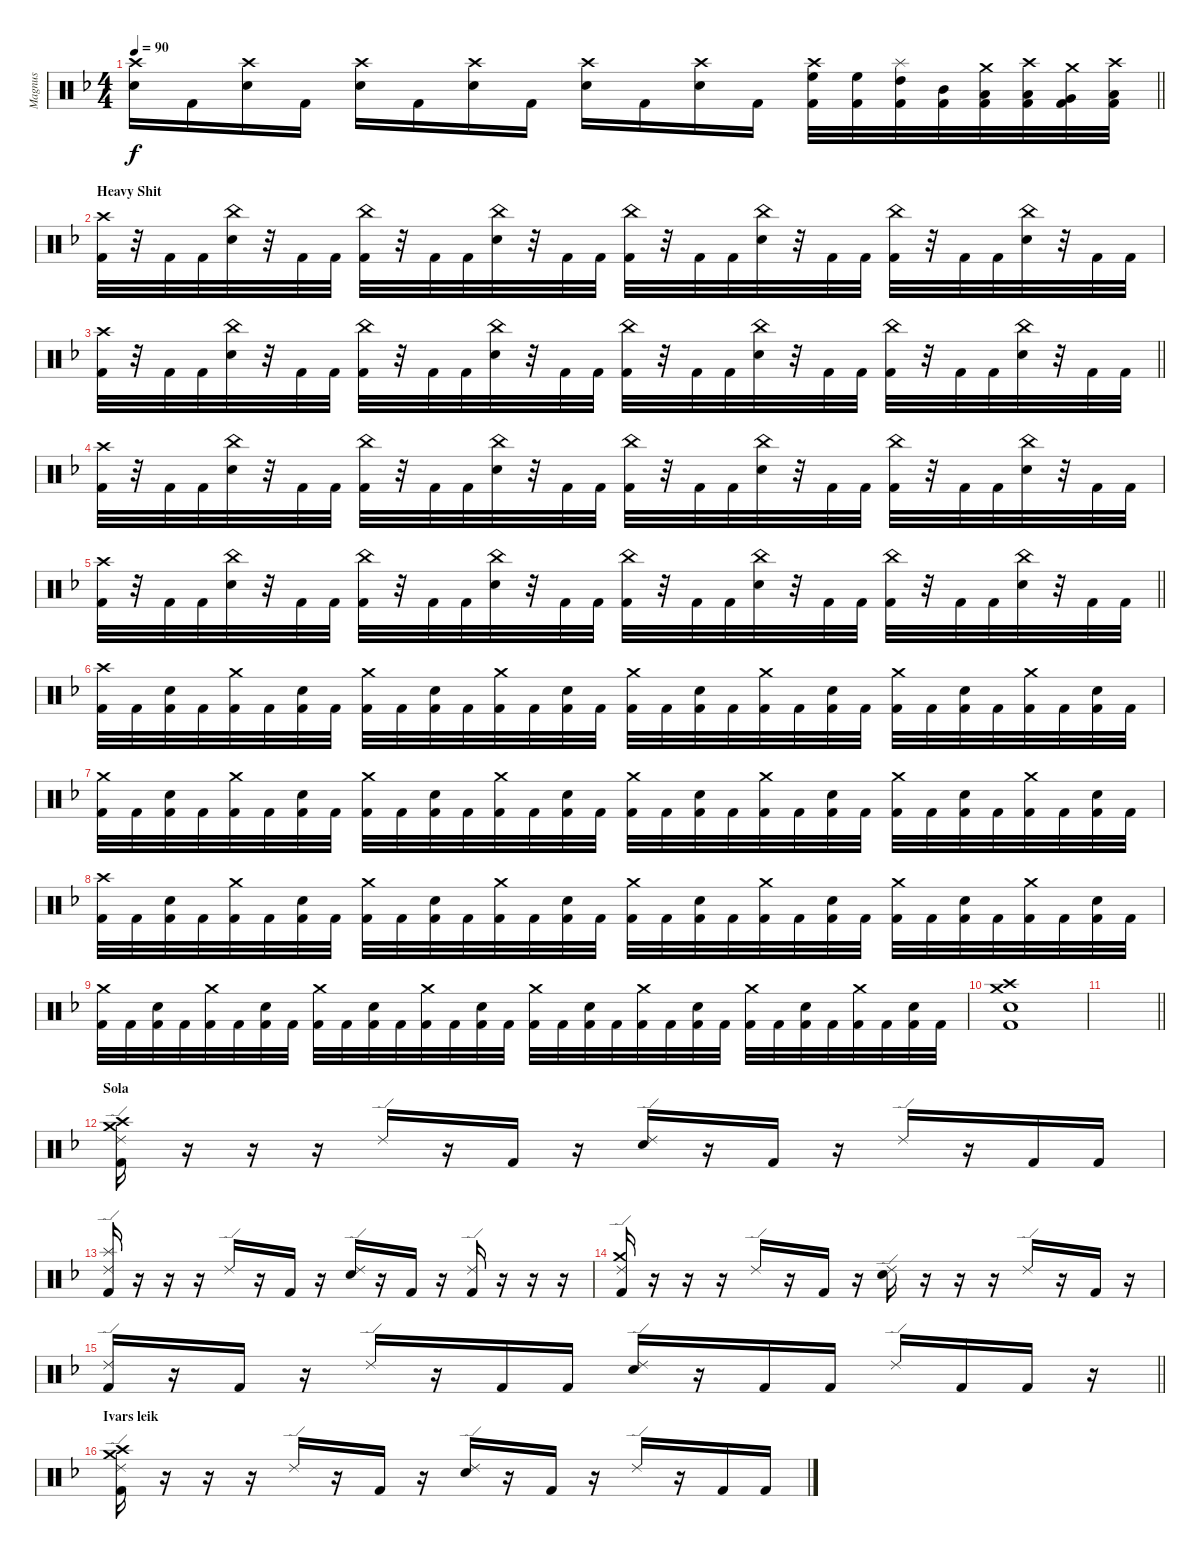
\track ("Magnus" "Magnus") {instrument percussion}
\staff {score}
\articulation defaults
\ts (4 4)
\tempo 90
\clef neutral
\barLineRight lightlight
\ks dminor
("Crash high (hit)" "Snare (hit) 2").16{dy f} "Kick (hit) 2".16 ("Crash high (hit)" "Snare (hit) 2").16 "Kick (hit) 2".16 ("Crash high (hit)" "Snare (hit) 2").16 "Kick (hit) 2".16 ("Crash high (hit)" "Snare (hit) 2").16 "Kick (hit) 2".16 ("Crash high (hit)" "Snare (hit) 2").16 "Kick (hit) 2".16 ("Crash high (hit)" "Snare (hit) 2").16 "Kick (hit) 2".16 ("High Floor Tom (hit)" "Crash high (hit)" "Kick (hit) 2").32 ("High Floor Tom (hit)" "Kick (hit) 2").32 ("High Tom (hit)" "Splash (hit)" "Kick (hit) 2").32 ("Mid Tom (hit)" "Kick (hit) 2").32 ("Low Tom (hit)" "Crash medium (hit)" "Kick (hit) 2").32 ("Low Tom (hit)" "Crash high (hit)" "Kick (hit) 2").32 ("Very Low Tom (hit)" "Crash medium (hit)" "Kick (hit) 2").32 ("Low Floor Tom (hit)" "Crash high (hit)" "Kick (hit) 2").32 |
\section ("" "Heavy Shit")
("Crash high (hit)" "Kick (hit) 2").32 r.32 "Kick (hit) 2".32 "Kick (hit) 2".32 ("China (hit)" "Snare (hit) 2").32 r.32 "Kick (hit) 2".32 "Kick (hit) 2".32 ("China (hit)" "Kick (hit) 2").32 r.32 "Kick (hit) 2".32 "Kick (hit) 2".32 ("China (hit)" "Snare (hit) 2").32 r.32 "Kick (hit) 2".32 "Kick (hit) 2".32 ("China (hit)" "Kick (hit) 2").32 r.32 "Kick (hit) 2".32 "Kick (hit) 2".32 ("China (hit)" "Snare (hit) 2").32 r.32 "Kick (hit) 2".32 "Kick (hit) 2".32 ("China (hit)" "Kick (hit) 2").32 r.32 "Kick (hit) 2".32 "Kick (hit) 2".32 ("China (hit)" "Snare (hit) 2").32 r.32 "Kick (hit) 2".32 "Kick (hit) 2".32 |
\barLineRight lightlight
("Crash high (hit)" "Kick (hit) 2").32 r.32 "Kick (hit) 2".32 "Kick (hit) 2".32 ("China (hit)" "Snare (hit) 2").32 r.32 "Kick (hit) 2".32 "Kick (hit) 2".32 ("China (hit)" "Kick (hit) 2").32 r.32 "Kick (hit) 2".32 "Kick (hit) 2".32 ("China (hit)" "Snare (hit) 2").32 r.32 "Kick (hit) 2".32 "Kick (hit) 2".32 ("China (hit)" "Kick (hit) 2").32 r.32 "Kick (hit) 2".32 "Kick (hit) 2".32 ("China (hit)" "Snare (hit) 2").32 r.32 "Kick (hit) 2".32 "Kick (hit) 2".32 ("China (hit)" "Kick (hit) 2").32 r.32 "Kick (hit) 2".32 "Kick (hit) 2".32 ("China (hit)" "Snare (hit) 2").32 r.32 "Kick (hit) 2".32 "Kick (hit) 2".32 |
("Crash high (hit)" "Kick (hit) 2").32 r.32 "Kick (hit) 2".32 "Kick (hit) 2".32 ("China (hit)" "Snare (hit) 2").32 r.32 "Kick (hit) 2".32 "Kick (hit) 2".32 ("China (hit)" "Kick (hit) 2").32 r.32 "Kick (hit) 2".32 "Kick (hit) 2".32 ("China (hit)" "Snare (hit) 2").32 r.32 "Kick (hit) 2".32 "Kick (hit) 2".32 ("China (hit)" "Kick (hit) 2").32 r.32 "Kick (hit) 2".32 "Kick (hit) 2".32 ("China (hit)" "Snare (hit) 2").32 r.32 "Kick (hit) 2".32 "Kick (hit) 2".32 ("China (hit)" "Kick (hit) 2").32 r.32 "Kick (hit) 2".32 "Kick (hit) 2".32 ("China (hit)" "Snare (hit) 2").32 r.32 "Kick (hit) 2".32 "Kick (hit) 2".32 |
\barLineRight lightlight
("Crash high (hit)" "Kick (hit) 2").32 r.32 "Kick (hit) 2".32 "Kick (hit) 2".32 ("China (hit)" "Snare (hit) 2").32 r.32 "Kick (hit) 2".32 "Kick (hit) 2".32 ("China (hit)" "Kick (hit) 2").32 r.32 "Kick (hit) 2".32 "Kick (hit) 2".32 ("China (hit)" "Snare (hit) 2").32 r.32 "Kick (hit) 2".32 "Kick (hit) 2".32 ("China (hit)" "Kick (hit) 2").32 r.32 "Kick (hit) 2".32 "Kick (hit) 2".32 ("China (hit)" "Snare (hit) 2").32 r.32 "Kick (hit) 2".32 "Kick (hit) 2".32 ("China (hit)" "Kick (hit) 2").32 r.32 "Kick (hit) 2".32 "Kick (hit) 2".32 ("China (hit)" "Snare (hit) 2").32 r.32 "Kick (hit) 2".32 "Kick (hit) 2".32 |
("Crash high (hit)" "Kick (hit) 2").32 "Kick (hit) 2".32 ("Snare (hit) 2" "Kick (hit) 2").32 "Kick (hit) 2".32 ("Crash medium (hit)" "Kick (hit) 2").32 "Kick (hit) 2".32 ("Snare (hit) 2" "Kick (hit) 2").32 "Kick (hit) 2".32 ("Crash medium (hit)" "Kick (hit) 2").32 "Kick (hit) 2".32 ("Snare (hit) 2" "Kick (hit) 2").32 "Kick (hit) 2".32 ("Crash medium (hit)" "Kick (hit) 2").32 "Kick (hit) 2".32 ("Snare (hit) 2" "Kick (hit) 2").32 "Kick (hit) 2".32 ("Crash medium (hit)" "Kick (hit) 2").32 "Kick (hit) 2".32 ("Snare (hit) 2" "Kick (hit) 2").32 "Kick (hit) 2".32 ("Crash medium (hit)" "Kick (hit) 2").32 "Kick (hit) 2".32 ("Snare (hit) 2" "Kick (hit) 2").32 "Kick (hit) 2".32 ("Crash medium (hit)" "Kick (hit) 2").32 "Kick (hit) 2".32 ("Snare (hit) 2" "Kick (hit) 2").32 "Kick (hit) 2".32 ("Crash medium (hit)" "Kick (hit) 2").32 "Kick (hit) 2".32 ("Snare (hit) 2" "Kick (hit) 2").32 "Kick (hit) 2".32 |
("Crash medium (hit)" "Kick (hit) 2").32 "Kick (hit) 2".32 ("Snare (hit) 2" "Kick (hit) 2").32 "Kick (hit) 2".32 ("Crash medium (hit)" "Kick (hit) 2").32 "Kick (hit) 2".32 ("Snare (hit) 2" "Kick (hit) 2").32 "Kick (hit) 2".32 ("Crash medium (hit)" "Kick (hit) 2").32 "Kick (hit) 2".32 ("Snare (hit) 2" "Kick (hit) 2").32 "Kick (hit) 2".32 ("Crash medium (hit)" "Kick (hit) 2").32 "Kick (hit) 2".32 ("Snare (hit) 2" "Kick (hit) 2").32 "Kick (hit) 2".32 ("Crash medium (hit)" "Kick (hit) 2").32 "Kick (hit) 2".32 ("Snare (hit) 2" "Kick (hit) 2").32 "Kick (hit) 2".32 ("Crash medium (hit)" "Kick (hit) 2").32 "Kick (hit) 2".32 ("Snare (hit) 2" "Kick (hit) 2").32 "Kick (hit) 2".32 ("Crash medium (hit)" "Kick (hit) 2").32 "Kick (hit) 2".32 ("Snare (hit) 2" "Kick (hit) 2").32 "Kick (hit) 2".32 ("Crash medium (hit)" "Kick (hit) 2").32 "Kick (hit) 2".32 ("Snare (hit) 2" "Kick (hit) 2").32 "Kick (hit) 2".32 |
("Crash high (hit)" "Kick (hit) 2").32 "Kick (hit) 2".32 ("Snare (hit) 2" "Kick (hit) 2").32 "Kick (hit) 2".32 ("Crash medium (hit)" "Kick (hit) 2").32 "Kick (hit) 2".32 ("Snare (hit) 2" "Kick (hit) 2").32 "Kick (hit) 2".32 ("Crash medium (hit)" "Kick (hit) 2").32 "Kick (hit) 2".32 ("Snare (hit) 2" "Kick (hit) 2").32 "Kick (hit) 2".32 ("Crash medium (hit)" "Kick (hit) 2").32 "Kick (hit) 2".32 ("Snare (hit) 2" "Kick (hit) 2").32 "Kick (hit) 2".32 ("Crash medium (hit)" "Kick (hit) 2").32 "Kick (hit) 2".32 ("Snare (hit) 2" "Kick (hit) 2").32 "Kick (hit) 2".32 ("Crash medium (hit)" "Kick (hit) 2").32 "Kick (hit) 2".32 ("Snare (hit) 2" "Kick (hit) 2").32 "Kick (hit) 2".32 ("Crash medium (hit)" "Kick (hit) 2").32 "Kick (hit) 2".32 ("Snare (hit) 2" "Kick (hit) 2").32 "Kick (hit) 2".32 ("Crash medium (hit)" "Kick (hit) 2").32 "Kick (hit) 2".32 ("Snare (hit) 2" "Kick (hit) 2").32 "Kick (hit) 2".32 |
("Crash medium (hit)" "Kick (hit) 2").32 "Kick (hit) 2".32 ("Snare (hit) 2" "Kick (hit) 2").32 "Kick (hit) 2".32 ("Crash medium (hit)" "Kick (hit) 2").32 "Kick (hit) 2".32 ("Snare (hit) 2" "Kick (hit) 2").32 "Kick (hit) 2".32 ("Crash medium (hit)" "Kick (hit) 2").32 "Kick (hit) 2".32 ("Snare (hit) 2" "Kick (hit) 2").32 "Kick (hit) 2".32 ("Crash medium (hit)" "Kick (hit) 2").32 "Kick (hit) 2".32 ("Snare (hit) 2" "Kick (hit) 2").32 "Kick (hit) 2".32 ("Crash medium (hit)" "Kick (hit) 2").32 "Kick (hit) 2".32 ("Snare (hit) 2" "Kick (hit) 2").32 "Kick (hit) 2".32 ("Crash medium (hit)" "Kick (hit) 2").32 "Kick (hit) 2".32 ("Snare (hit) 2" "Kick (hit) 2").32 "Kick (hit) 2".32 ("Crash medium (hit)" "Kick (hit) 2").32 "Kick (hit) 2".32 ("Snare (hit) 2" "Kick (hit) 2").32 "Kick (hit) 2".32 ("Crash medium (hit)" "Kick (hit) 2").32 "Kick (hit) 2".32 ("Snare (hit) 2" "Kick (hit) 2").32 "Kick (hit) 2".32 |
("Crash medium (hit)" "Crash high (hit)" "Snare (hit) 2" "Kick (hit) 2").1 |
\barLineRight lightlight
|
\section ("" "Sola")
("Crash medium (hit)" "Crash high (hit)" "Ride (edge) 2" "Kick (hit) 2").16 r.16 r.16 r.16 "Ride (edge) 2".16 r.16 "Kick (hit) 2".16 r.16 ("Ride (edge) 2" "Snare (hit) 2").16 r.16 "Kick (hit) 2".16 r.16 "Ride (edge) 2".16 r.16 "Kick (hit) 2".16 "Kick (hit) 2".16 |
("Splash (hit)" "Ride (edge) 2" "Kick (hit) 2").16 r.16 r.16 r.16 "Ride (edge) 2".16 r.16 "Kick (hit) 2".16 r.16 ("Ride (edge) 2" "Snare (hit) 2").16 r.16 "Kick (hit) 2".16 r.16 ("Ride (edge) 2" "Kick (hit) 2").16 r.16 r.16 r.16 |
("Crash medium (hit)" "Ride (edge) 2" "Kick (hit) 2").16 r.16 r.16 r.16 "Ride (edge) 2".16 r.16 "Kick (hit) 2".16 r.16 ("Ride (edge) 2" "Snare (hit) 2").16 r.16 r.16 r.16 "Ride (edge) 2".16 r.16 "Kick (hit) 2".16 r.16 |
\barLineRight lightlight
("Ride (edge) 2" "Kick (hit) 2").16 r.16 "Kick (hit) 2".16 r.16 "Ride (edge) 2".16 r.16 "Kick (hit) 2".16 "Kick (hit) 2".16 ("Ride (edge) 2" "Snare (hit) 2").16 r.16 "Kick (hit) 2".16 "Kick (hit) 2".16 "Ride (edge) 2".16 "Kick (hit) 2".16 "Kick (hit) 2".16 r.16 |
\section ("" "Ivars leik")
("Crash medium (hit)" "Crash high (hit)" "Ride (edge) 2" "Kick (hit) 2").16 r.16 r.16 r.16 "Ride (edge) 2".16 r.16 "Kick (hit) 2".16 r.16 ("Ride (edge) 2" "Snare (hit) 2").16 r.16 "Kick (hit) 2".16 r.16 "Ride (edge) 2".16 r.16 "Kick (hit) 2".16 "Kick (hit) 2".16
